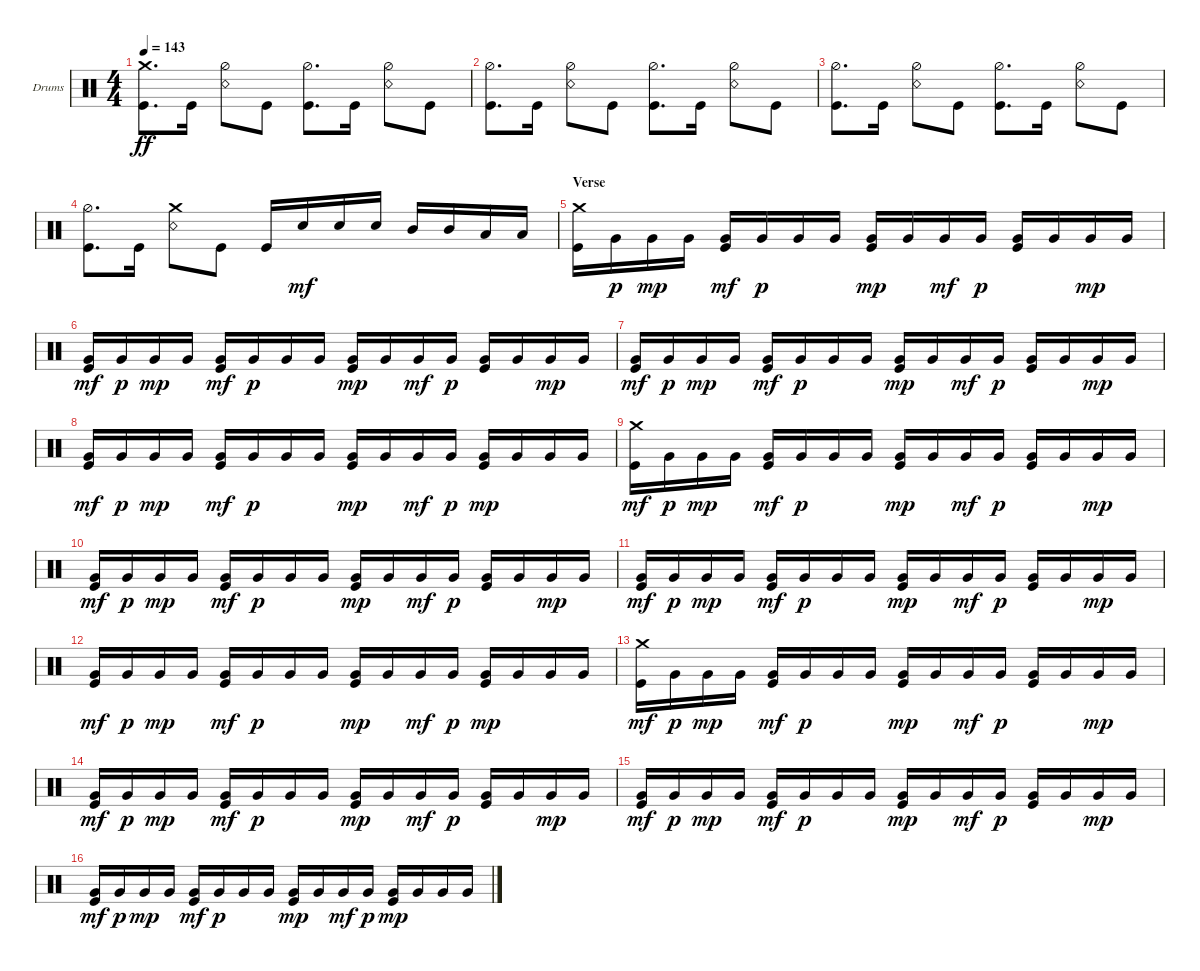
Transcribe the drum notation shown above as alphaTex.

\defaultSystemsLayout 4
\bracketExtendMode groupsimilarinstruments
\firstSystemTrackNameOrientation horizontal
\otherSystemsTrackNameOrientation horizontal
\track ("Nao - Drums" "Drums") {instrument percussion}
\staff {score}
\articulation defaults
\ts (4 4)
\tempo 143
\clef neutral
\ks c
("Kick (hit)" "Crash medium (hit)").8{d dy ff} "Kick (hit)".16 ("Hi-Hat (half)" "Snare (rim shot)").8 "Kick (hit)".8 ("Kick (hit)" "Hi-Hat (half)").8{d} "Kick (hit)".16 ("Hi-Hat (half)" "Snare (rim shot)").8 "Kick (hit)".8 |
("Kick (hit)" "Hi-Hat (half)").8{d} "Kick (hit)".16 ("Hi-Hat (half)" "Snare (rim shot)").8 "Kick (hit)".8 ("Kick (hit)" "Hi-Hat (half)").8{d} "Kick (hit)".16 ("Hi-Hat (half)" "Snare (rim shot)").8 "Kick (hit)".8 |
("Kick (hit)" "Hi-Hat (half)").8{d} "Kick (hit)".16 ("Hi-Hat (half)" "Snare (rim shot)").8 "Kick (hit)".8 ("Kick (hit)" "Hi-Hat (half)").8{d} "Kick (hit)".16 ("Hi-Hat (half)" "Snare (rim shot)").8 "Kick (hit)".8 |
("Kick (hit)" "Hi-Hat (half)").8{d} "Kick (hit)".16 ("Snare (rim shot)" "Crash medium (hit)").8 "Kick (hit)".8 "Kick (hit)".16 "Snare (hit) 2".16{dy mf} "Snare (hit) 2".16 "Snare (hit) 2".16 "Mid Tom (hit)".16 "Mid Tom (hit)".16 "Low Tom (hit)".16 "Low Tom (hit)".16 |
\section ("" "Verse")
("Kick (hit)" "Crash medium (hit)").16 "Very Low Tom (hit)".16{dy p} "Very Low Tom (hit)".16{dy mp} "Very Low Tom (hit)".16 ("Very Low Tom (hit)" "Kick (hit)").16{dy mf} "Very Low Tom (hit)".16{dy p} "Very Low Tom (hit)".16 "Very Low Tom (hit)".16 ("Very Low Tom (hit)" "Kick (hit)").16{dy mp} "Very Low Tom (hit)".16 "Very Low Tom (hit)".16{dy mf} "Very Low Tom (hit)".16{dy p} ("Kick (hit)" "Very Low Tom (hit)").16 "Very Low Tom (hit)".16 "Very Low Tom (hit)".16{dy mp} "Very Low Tom (hit)".16 |
("Very Low Tom (hit)" "Kick (hit)").16{dy mf} "Very Low Tom (hit)".16{dy p} "Very Low Tom (hit)".16{dy mp} "Very Low Tom (hit)".16 ("Very Low Tom (hit)" "Kick (hit)").16{dy mf} "Very Low Tom (hit)".16{dy p} "Very Low Tom (hit)".16 "Very Low Tom (hit)".16 ("Very Low Tom (hit)" "Kick (hit)").16{dy mp} "Very Low Tom (hit)".16 "Very Low Tom (hit)".16{dy mf} "Very Low Tom (hit)".16{dy p} ("Kick (hit)" "Very Low Tom (hit)").16 "Very Low Tom (hit)".16 "Very Low Tom (hit)".16{dy mp} "Very Low Tom (hit)".16 |
("Very Low Tom (hit)" "Kick (hit)").16{dy mf} "Very Low Tom (hit)".16{dy p} "Very Low Tom (hit)".16{dy mp} "Very Low Tom (hit)".16 ("Very Low Tom (hit)" "Kick (hit)").16{dy mf} "Very Low Tom (hit)".16{dy p} "Very Low Tom (hit)".16 "Very Low Tom (hit)".16 ("Very Low Tom (hit)" "Kick (hit)").16{dy mp} "Very Low Tom (hit)".16 "Very Low Tom (hit)".16{dy mf} "Very Low Tom (hit)".16{dy p} ("Kick (hit)" "Very Low Tom (hit)").16 "Very Low Tom (hit)".16 "Very Low Tom (hit)".16{dy mp} "Very Low Tom (hit)".16 |
("Very Low Tom (hit)" "Kick (hit)").16{dy mf} "Very Low Tom (hit)".16{dy p} "Very Low Tom (hit)".16{dy mp} "Very Low Tom (hit)".16 ("Very Low Tom (hit)" "Kick (hit)").16{dy mf} "Very Low Tom (hit)".16{dy p} "Very Low Tom (hit)".16 "Very Low Tom (hit)".16 ("Very Low Tom (hit)" "Kick (hit)").16{dy mp} "Very Low Tom (hit)".16 "Very Low Tom (hit)".16{dy mf} "Very Low Tom (hit)".16{dy p} ("Kick (hit)" "Very Low Tom (hit)").16{dy mp} "Very Low Tom (hit)".16 "Very Low Tom (hit)".16 "Very Low Tom (hit)".16 |
("Kick (hit)" "Crash medium (hit)").16{dy mf} "Very Low Tom (hit)".16{dy p} "Very Low Tom (hit)".16{dy mp} "Very Low Tom (hit)".16 ("Very Low Tom (hit)" "Kick (hit)").16{dy mf} "Very Low Tom (hit)".16{dy p} "Very Low Tom (hit)".16 "Very Low Tom (hit)".16 ("Very Low Tom (hit)" "Kick (hit)").16{dy mp} "Very Low Tom (hit)".16 "Very Low Tom (hit)".16{dy mf} "Very Low Tom (hit)".16{dy p} ("Kick (hit)" "Very Low Tom (hit)").16 "Very Low Tom (hit)".16 "Very Low Tom (hit)".16{dy mp} "Very Low Tom (hit)".16 |
("Very Low Tom (hit)" "Kick (hit)").16{dy mf} "Very Low Tom (hit)".16{dy p} "Very Low Tom (hit)".16{dy mp} "Very Low Tom (hit)".16 ("Very Low Tom (hit)" "Kick (hit)").16{dy mf} "Very Low Tom (hit)".16{dy p} "Very Low Tom (hit)".16 "Very Low Tom (hit)".16 ("Very Low Tom (hit)" "Kick (hit)").16{dy mp} "Very Low Tom (hit)".16 "Very Low Tom (hit)".16{dy mf} "Very Low Tom (hit)".16{dy p} ("Kick (hit)" "Very Low Tom (hit)").16 "Very Low Tom (hit)".16 "Very Low Tom (hit)".16{dy mp} "Very Low Tom (hit)".16 |
("Very Low Tom (hit)" "Kick (hit)").16{dy mf} "Very Low Tom (hit)".16{dy p} "Very Low Tom (hit)".16{dy mp} "Very Low Tom (hit)".16 ("Very Low Tom (hit)" "Kick (hit)").16{dy mf} "Very Low Tom (hit)".16{dy p} "Very Low Tom (hit)".16 "Very Low Tom (hit)".16 ("Very Low Tom (hit)" "Kick (hit)").16{dy mp} "Very Low Tom (hit)".16 "Very Low Tom (hit)".16{dy mf} "Very Low Tom (hit)".16{dy p} ("Kick (hit)" "Very Low Tom (hit)").16 "Very Low Tom (hit)".16 "Very Low Tom (hit)".16{dy mp} "Very Low Tom (hit)".16 |
("Very Low Tom (hit)" "Kick (hit)").16{dy mf} "Very Low Tom (hit)".16{dy p} "Very Low Tom (hit)".16{dy mp} "Very Low Tom (hit)".16 ("Very Low Tom (hit)" "Kick (hit)").16{dy mf} "Very Low Tom (hit)".16{dy p} "Very Low Tom (hit)".16 "Very Low Tom (hit)".16 ("Very Low Tom (hit)" "Kick (hit)").16{dy mp} "Very Low Tom (hit)".16 "Very Low Tom (hit)".16{dy mf} "Very Low Tom (hit)".16{dy p} ("Kick (hit)" "Very Low Tom (hit)").16{dy mp} "Very Low Tom (hit)".16 "Very Low Tom (hit)".16 "Very Low Tom (hit)".16 |
("Kick (hit)" "Crash medium (hit)").16{dy mf} "Very Low Tom (hit)".16{dy p} "Very Low Tom (hit)".16{dy mp} "Very Low Tom (hit)".16 ("Very Low Tom (hit)" "Kick (hit)").16{dy mf} "Very Low Tom (hit)".16{dy p} "Very Low Tom (hit)".16 "Very Low Tom (hit)".16 ("Very Low Tom (hit)" "Kick (hit)").16{dy mp} "Very Low Tom (hit)".16 "Very Low Tom (hit)".16{dy mf} "Very Low Tom (hit)".16{dy p} ("Kick (hit)" "Very Low Tom (hit)").16 "Very Low Tom (hit)".16 "Very Low Tom (hit)".16{dy mp} "Very Low Tom (hit)".16 |
("Very Low Tom (hit)" "Kick (hit)").16{dy mf} "Very Low Tom (hit)".16{dy p} "Very Low Tom (hit)".16{dy mp} "Very Low Tom (hit)".16 ("Very Low Tom (hit)" "Kick (hit)").16{dy mf} "Very Low Tom (hit)".16{dy p} "Very Low Tom (hit)".16 "Very Low Tom (hit)".16 ("Very Low Tom (hit)" "Kick (hit)").16{dy mp} "Very Low Tom (hit)".16 "Very Low Tom (hit)".16{dy mf} "Very Low Tom (hit)".16{dy p} ("Kick (hit)" "Very Low Tom (hit)").16 "Very Low Tom (hit)".16 "Very Low Tom (hit)".16{dy mp} "Very Low Tom (hit)".16 |
("Very Low Tom (hit)" "Kick (hit)").16{dy mf} "Very Low Tom (hit)".16{dy p} "Very Low Tom (hit)".16{dy mp} "Very Low Tom (hit)".16 ("Very Low Tom (hit)" "Kick (hit)").16{dy mf} "Very Low Tom (hit)".16{dy p} "Very Low Tom (hit)".16 "Very Low Tom (hit)".16 ("Very Low Tom (hit)" "Kick (hit)").16{dy mp} "Very Low Tom (hit)".16 "Very Low Tom (hit)".16{dy mf} "Very Low Tom (hit)".16{dy p} ("Kick (hit)" "Very Low Tom (hit)").16 "Very Low Tom (hit)".16 "Very Low Tom (hit)".16{dy mp} "Very Low Tom (hit)".16 |
("Very Low Tom (hit)" "Kick (hit)").16{dy mf} "Very Low Tom (hit)".16{dy p} "Very Low Tom (hit)".16{dy mp} "Very Low Tom (hit)".16 ("Very Low Tom (hit)" "Kick (hit)").16{dy mf} "Very Low Tom (hit)".16{dy p} "Very Low Tom (hit)".16 "Very Low Tom (hit)".16 ("Very Low Tom (hit)" "Kick (hit)").16{dy mp} "Very Low Tom (hit)".16 "Very Low Tom (hit)".16{dy mf} "Very Low Tom (hit)".16{dy p} ("Kick (hit)" "Very Low Tom (hit)").16{dy mp} "Very Low Tom (hit)".16 "Very Low Tom (hit)".16 "Very Low Tom (hit)".16
